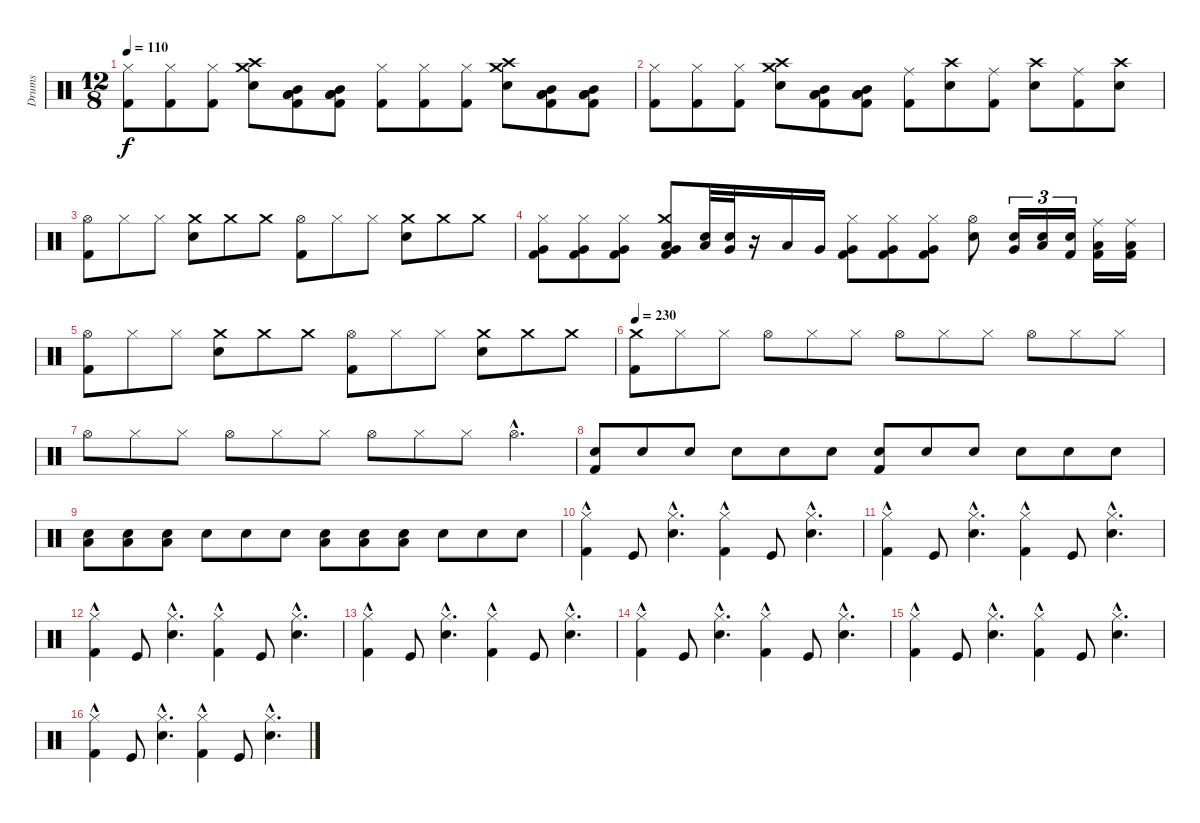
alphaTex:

\track ("Drums" "Drums") {instrument percussion}
\staff {score}
\articulation defaults
\ts (12 8)
\tempo 110
\clef neutral
\ks c
("Hi-Hat (closed)" "Kick (hit) 2").8{dy f} ("Hi-Hat (closed)" "Kick (hit) 2").8 ("Hi-Hat (closed)" "Kick (hit) 2").8 ("Snare (hit) 2" "Crash high (hit)" "Crash medium (hit)").8 ("Kick (hit) 2" "Low Tom (hit)" "Low Floor Tom (hit)" "Mid Tom (hit)").8 ("Kick (hit) 2" "Mid Tom (hit)" "Low Floor Tom (hit)" "Low Tom (hit)").8 ("Hi-Hat (closed)" "Kick (hit) 2").8 ("Hi-Hat (closed)" "Kick (hit) 2").8 ("Hi-Hat (closed)" "Kick (hit) 2").8 ("Crash medium (hit)" "Crash high (hit)" "Snare (hit) 2").8 ("Kick (hit) 2" "Mid Tom (hit)" "Low Tom (hit)" "Low Floor Tom (hit)").8 ("Kick (hit) 2" "Mid Tom (hit)" "Low Tom (hit)" "Low Floor Tom (hit)").8 |
("Hi-Hat (closed)" "Kick (hit) 2").8 ("Hi-Hat (closed)" "Kick (hit) 2").8 ("Hi-Hat (closed)" "Kick (hit) 2").8 ("Snare (hit) 2" "Crash high (hit)" "Crash medium (hit)").8 ("Kick (hit) 2" "Low Floor Tom (hit)" "Mid Tom (hit)" "Low Tom (hit)").8 ("Kick (hit) 2" "Mid Tom (hit)" "Low Tom (hit)" "Low Floor Tom (hit)").8 ("Ride (middle)" "Kick (hit) 2").8 ("Crash high (hit)" "Snare (hit) 2").8 ("Ride (middle)" "Kick (hit) 2").8 ("Crash high (hit)" "Snare (hit) 2").8 ("Ride (middle)" "Kick (hit) 2").8 ("Crash high (hit)" "Snare (hit) 2").8 |
("Hi-Hat (open)" "Kick (hit) 2").8 "Hi-Hat (closed)".8 "Hi-Hat (closed)".8 ("Snare (hit) 2" "Crash medium (hit)").8 "Crash medium (hit)".8 "Crash medium (hit)".8 ("Hi-Hat (open)" "Kick (hit) 2").8 "Hi-Hat (closed)".8 "Hi-Hat (closed)".8 ("Snare (hit) 2" "Crash medium (hit)").8 "Crash medium (hit)".8 "Crash medium (hit)".8 |
("Hi-Hat (closed)" "Kick (hit) 2" "Very Low Tom (hit)").8 ("Hi-Hat (closed)" "Kick (hit) 2" "Very Low Tom (hit)").8 ("Hi-Hat (closed)" "Kick (hit) 2" "Very Low Tom (hit)").8 ("Crash medium (hit)" "Low Floor Tom (hit)" "Kick (hit) 2" "Very Low Tom (hit)").8 ("Snare (hit) 2" "Low Tom (hit)").32 ("Snare (hit) 2" "Very Low Tom (hit)").32 r.16 "Low Floor Tom (hit)".16 "Very Low Tom (hit)".16 ("Hi-Hat (closed)" "Very Low Tom (hit)" "Kick (hit) 2").8 ("Hi-Hat (closed)" "Very Low Tom (hit)" "Kick (hit) 2").8 ("Hi-Hat (closed)" "Very Low Tom (hit)" "Kick (hit) 2").8 ("Hi-Hat (open)" "Electric Snare (hit)").8 ("Very Low Tom (hit)" "Snare (hit) 2").16{tu (3 2)} ("Low Floor Tom (hit)" "Snare (hit) 2").16{tu (3 2)} ("Kick (hit) 2" "Snare (hit) 2").16{tu (3 2)} ("Kick (hit) 2" "Ride (middle)" "Low Floor Tom (hit)").16 ("Kick (hit) 2" "Ride (middle)" "Low Floor Tom (hit)").16 |
("Hi-Hat (open)" "Kick (hit) 2").8 "Hi-Hat (closed)".8 "Hi-Hat (closed)".8 ("Snare (hit) 2" "Crash medium (hit)").8 "Crash medium (hit)".8 "Crash medium (hit)".8 ("Hi-Hat (open)" "Kick (hit) 2").8 "Hi-Hat (closed)".8 "Hi-Hat (closed)".8 ("Snare (hit) 2" "Crash medium (hit)").8 "Crash medium (hit)".8 "Crash medium (hit)".8 |
\tempo 230
("Kick (hit) 2" "Crash medium (hit)").8 "Hi-Hat (closed)".8 "Hi-Hat (closed)".8 "Hi-Hat (open)".8 "Hi-Hat (closed)".8 "Hi-Hat (closed)".8 "Hi-Hat (open)".8 "Hi-Hat (closed)".8 "Hi-Hat (closed)".8 "Hi-Hat (open)".8 "Hi-Hat (closed)".8 "Hi-Hat (closed)".8 |
"Hi-Hat (open)".8 "Hi-Hat (closed)".8 "Hi-Hat (closed)".8 "Hi-Hat (open)".8 "Hi-Hat (closed)".8 "Hi-Hat (closed)".8 "Hi-Hat (open)".8 "Hi-Hat (closed)".8 "Hi-Hat (closed)".8 "Hi-Hat (open)"{hac}.4{d} |
("Kick (hit) 2" "Snare (hit) 2").8 "Snare (hit) 2".8 "Snare (hit) 2".8 "Snare (hit) 2".8 "Snare (hit) 2".8 "Snare (hit) 2".8 ("Kick (hit) 2" "Snare (hit) 2").8 "Snare (hit) 2".8 "Snare (hit) 2".8 "Snare (hit) 2".8 "Snare (hit) 2".8 "Snare (hit) 2".8 |
("Electric Snare (hit)" "Low Tom (hit)").8 ("Electric Snare (hit)" "Low Tom (hit)").8 ("Electric Snare (hit)" "Low Tom (hit)").8 "Electric Snare (hit)".8 "Electric Snare (hit)".8 "Electric Snare (hit)".8 ("Electric Snare (hit)" "Low Tom (hit)").8 ("Low Tom (hit)" "Electric Snare (hit)").8 ("Low Tom (hit)" "Electric Snare (hit)").8 "Snare (hit) 2".8 "Snare (hit) 2".8 "Snare (hit) 2".8 |
("Hi-Hat (closed)"{hac} "Kick (hit) 2").4 "Kick (hit)".8 ("Hi-Hat (closed)"{hac} "Snare (hit) 2"{hac}).4{d} ("Hi-Hat (closed)"{hac} "Kick (hit) 2").4 "Kick (hit)".8 ("Hi-Hat (closed)"{hac} "Snare (hit) 2"{hac}).4{d} |
("Kick (hit) 2" "Hi-Hat (closed)"{hac}).4 "Kick (hit)".8 ("Hi-Hat (closed)"{hac} "Snare (hit) 2"{hac}).4{d} ("Kick (hit) 2" "Hi-Hat (closed)"{hac}).4 "Kick (hit)".8 ("Hi-Hat (closed)"{hac} "Snare (hit) 2"{hac}).4{d} |
("Kick (hit) 2" "Hi-Hat (closed)"{hac}).4 "Kick (hit)".8 ("Hi-Hat (closed)"{hac} "Snare (hit) 2"{hac}).4{d} ("Kick (hit) 2" "Hi-Hat (closed)"{hac}).4 "Kick (hit)".8 ("Hi-Hat (closed)"{hac} "Snare (hit) 2"{hac}).4{d} |
("Kick (hit) 2" "Hi-Hat (closed)"{hac}).4 "Kick (hit)".8 ("Hi-Hat (closed)"{hac} "Snare (hit) 2"{hac}).4{d} ("Kick (hit) 2" "Hi-Hat (closed)"{hac}).4 "Kick (hit)".8 ("Hi-Hat (closed)"{hac} "Snare (hit) 2"{hac}).4{d} |
("Kick (hit) 2" "Hi-Hat (closed)"{hac}).4 "Kick (hit)".8 ("Hi-Hat (closed)"{hac} "Snare (hit) 2"{hac}).4{d} ("Hi-Hat (closed)"{hac} "Kick (hit) 2").4 "Kick (hit)".8 ("Hi-Hat (closed)"{hac} "Snare (hit) 2"{hac}).4{d} |
("Hi-Hat (closed)"{hac} "Kick (hit) 2").4 "Kick (hit)".8 ("Hi-Hat (closed)"{hac} "Snare (hit) 2"{hac}).4{d} ("Hi-Hat (closed)"{hac} "Kick (hit) 2").4 "Kick (hit)".8 ("Hi-Hat (closed)"{hac} "Snare (hit) 2"{hac}).4{d} |
("Hi-Hat (closed)"{hac} "Kick (hit) 2").4 "Kick (hit)".8 ("Hi-Hat (closed)"{hac} "Snare (hit) 2"{hac}).4{d} ("Hi-Hat (closed)"{hac} "Kick (hit) 2").4 "Kick (hit)".8 ("Hi-Hat (closed)"{hac} "Snare (hit) 2"{hac}).4{d}
